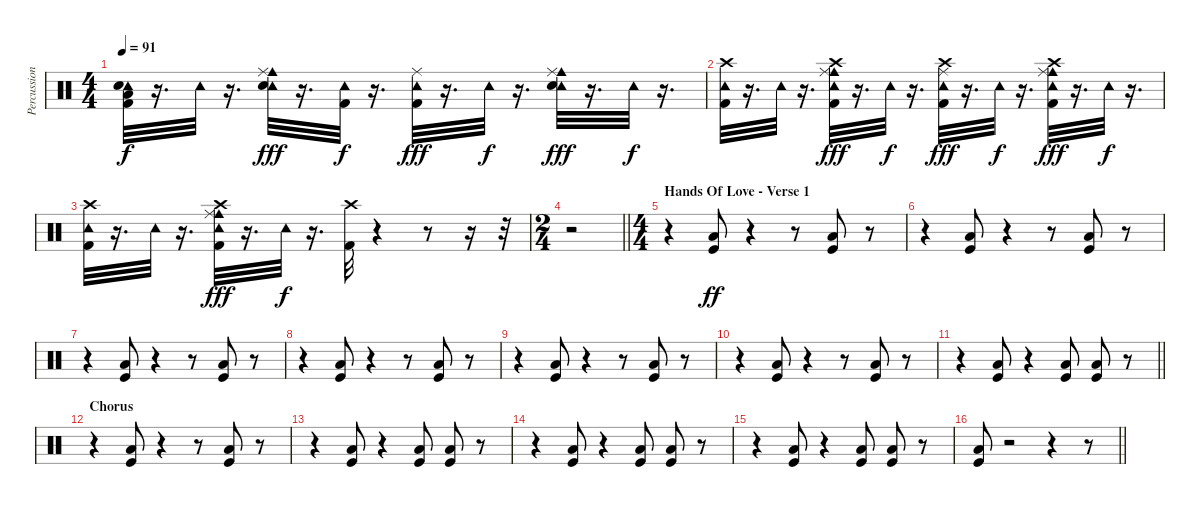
\track ("Percussion" "Percussion") {instrument percussion}
\staff {score}
\articulation defaults
\ts (4 4)
\tempo 91
\clef neutral
\ks c
("Tambourine (hit)" "Low Tom (hit)" "Kick (hit) 2" "Snare (hit) 2").32{dy f} r.16{d} "Tambourine (hit)".32 r.16{d} ("Cowbell medium (hit)" "Tambourine (hit)" "Snare (hit) 2" "Ride (middle)").32{dy fff} r.16{d} ("Tambourine (hit)" "Kick (hit) 2").32{dy f} r.16{d} ("Tambourine (hit)" "Kick (hit) 2" "Ride (middle)").32{dy fff} r.16{d} "Tambourine (hit)".32{dy f} r.16{d} ("Tambourine (hit)" "Cowbell medium (hit)" "Snare (hit) 2" "Ride (middle)").32{dy fff} r.16{d} "Tambourine (hit)".32{dy f} r.16{d} |
("Kick (hit) 2" "Crash high (hit)" "Tambourine (hit)").32 r.16{d} "Tambourine (hit)".32 r.16{d} ("Kick (hit) 2" "Crash high (hit)" "Cowbell medium (hit)" "Tambourine (hit)" "Ride (middle)").32{dy fff} r.16{d} "Tambourine (hit)".32{dy f} r.16{d} ("Kick (hit) 2" "Crash high (hit)" "Tambourine (hit)" "Ride (middle)").32{dy fff} r.16{d} "Tambourine (hit)".32{dy f} r.16{d} ("Kick (hit) 2" "Crash high (hit)" "Tambourine (hit)" "Cowbell medium (hit)" "Ride (middle)").32{dy fff} r.16{d} "Tambourine (hit)".32{dy f} r.16{d} |
("Kick (hit) 2" "Crash high (hit)" "Tambourine (hit)").32 r.16{d} "Tambourine (hit)".32 r.16{d} ("Kick (hit) 2" "Crash high (hit)" "Cowbell medium (hit)" "Tambourine (hit)" "Ride (middle)").32{dy fff} r.16{d} "Tambourine (hit)".32{dy f} r.16{d} ("Kick (hit) 2" "Crash high (hit)").32 r.4 r.8 r.16 r.32 |
\ts (2 4)
\barLineRight lightlight
r.2 |
\ts (4 4)
\section ("" "Hands Of Love - Verse 1")
r.4 ("Low Floor Tom (hit)" "Kick (hit)").8{dy ff} r.4 r.8 ("Low Floor Tom (hit)" "Kick (hit)").8 r.8 |
r.4 ("Low Floor Tom (hit)" "Kick (hit)").8 r.4 r.8 ("Low Floor Tom (hit)" "Kick (hit)").8 r.8 |
r.4 ("Low Floor Tom (hit)" "Kick (hit)").8 r.4 r.8 ("Low Floor Tom (hit)" "Kick (hit)").8 r.8 |
r.4 ("Low Floor Tom (hit)" "Kick (hit)").8 r.4 r.8 ("Low Floor Tom (hit)" "Kick (hit)").8 r.8 |
r.4 ("Low Floor Tom (hit)" "Kick (hit)").8 r.4 r.8 ("Low Floor Tom (hit)" "Kick (hit)").8 r.8 |
r.4 ("Low Floor Tom (hit)" "Kick (hit)").8 r.4 r.8 ("Low Floor Tom (hit)" "Kick (hit)").8 r.8 |
\barLineRight lightlight
r.4 ("Low Floor Tom (hit)" "Kick (hit)").8 r.4 ("Low Tom (hit)" "Kick (hit)").8 ("Low Floor Tom (hit)" "Kick (hit)").8 r.8 |
\section ("" "Chorus")
r.4 ("Low Floor Tom (hit)" "Kick (hit)").8 r.4 r.8 ("Low Floor Tom (hit)" "Kick (hit)").8 r.8 |
r.4 ("Low Floor Tom (hit)" "Kick (hit)").8 r.4 ("Low Tom (hit)" "Kick (hit)").8 ("Low Floor Tom (hit)" "Kick (hit)").8 r.8 |
r.4 ("Low Floor Tom (hit)" "Kick (hit)").8 r.4 ("Low Tom (hit)" "Kick (hit)").8 ("Low Floor Tom (hit)" "Kick (hit)").8 r.8 |
r.4 ("Low Floor Tom (hit)" "Kick (hit)").8 r.4 ("Low Tom (hit)" "Kick (hit)").8 ("Low Floor Tom (hit)" "Kick (hit)").8 r.8 |
\barLineRight lightlight
("Low Floor Tom (hit)" "Kick (hit)").8 r.2 r.4 r.8
